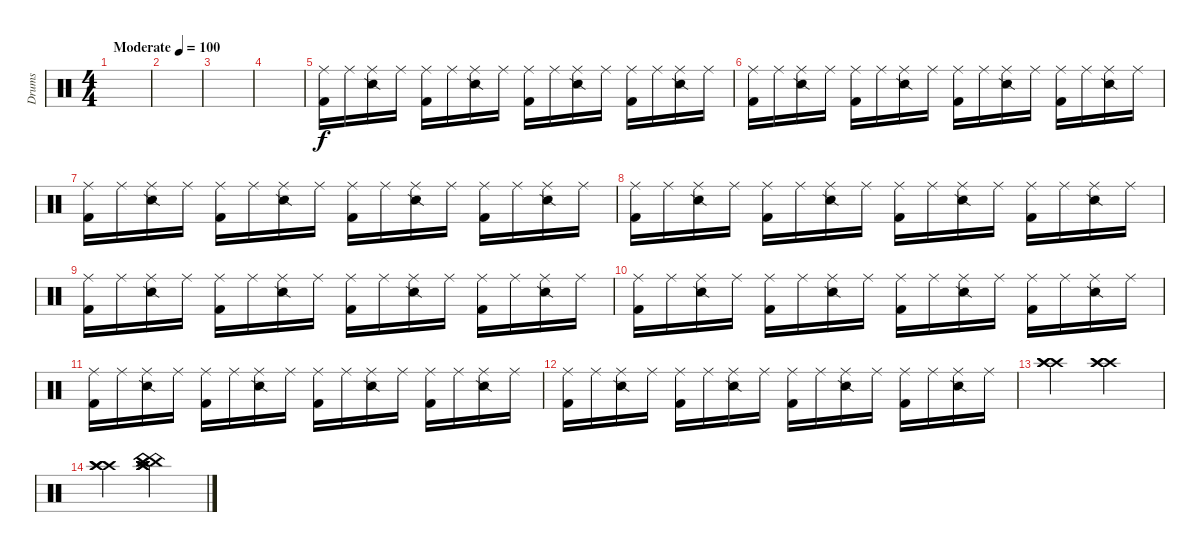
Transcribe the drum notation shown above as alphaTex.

\track ("Drums" "Drums") {instrument percussion}
\staff {score}
\articulation defaults
\ts (4 4)
\tempo (100 "Moderate")
\clef neutral
\ks c
|
|
|
|
("Kick (hit) 2" "Ride (middle)").16 "Ride (middle)".16 ("Snare (side stick) 2" "Ride (middle)").16 "Ride (middle)".16 ("Kick (hit) 2" "Ride (middle)").16 "Ride (middle)".16 ("Snare (side stick) 2" "Ride (middle)").16 "Ride (middle)".16 ("Kick (hit) 2" "Ride (middle)").16 "Ride (middle)".16 ("Snare (side stick) 2" "Ride (middle)").16 "Ride (middle)".16 ("Kick (hit) 2" "Ride (middle)").16 "Ride (middle)".16 ("Snare (side stick) 2" "Ride (middle)").16 "Ride (middle)".16 |
("Kick (hit) 2" "Ride (middle)").16 "Ride (middle)".16 ("Snare (side stick) 2" "Ride (middle)").16 "Ride (middle)".16 ("Kick (hit) 2" "Ride (middle)").16 "Ride (middle)".16 ("Snare (side stick) 2" "Ride (middle)").16 "Ride (middle)".16 ("Kick (hit) 2" "Ride (middle)").16 "Ride (middle)".16 ("Snare (side stick) 2" "Ride (middle)").16 "Ride (middle)".16 ("Kick (hit) 2" "Ride (middle)").16 "Ride (middle)".16 ("Snare (side stick) 2" "Ride (middle)").16 "Ride (middle)".16 |
("Kick (hit) 2" "Ride (middle)").16 "Ride (middle)".16 ("Snare (side stick) 2" "Ride (middle)").16 "Ride (middle)".16 ("Kick (hit) 2" "Ride (middle)").16 "Ride (middle)".16 ("Snare (side stick) 2" "Ride (middle)").16 "Ride (middle)".16 ("Kick (hit) 2" "Ride (middle)").16 "Ride (middle)".16 ("Snare (side stick) 2" "Ride (middle)").16 "Ride (middle)".16 ("Kick (hit) 2" "Ride (middle)").16 "Ride (middle)".16 ("Snare (side stick) 2" "Ride (middle)").16 "Ride (middle)".16 |
("Kick (hit) 2" "Ride (middle)").16 "Ride (middle)".16 ("Snare (side stick) 2" "Ride (middle)").16 "Ride (middle)".16 ("Kick (hit) 2" "Ride (middle)").16 "Ride (middle)".16 ("Snare (side stick) 2" "Ride (middle)").16 "Ride (middle)".16 ("Kick (hit) 2" "Ride (middle)").16 "Ride (middle)".16 ("Snare (side stick) 2" "Ride (middle)").16 "Ride (middle)".16 ("Kick (hit) 2" "Ride (middle)").16 "Ride (middle)".16 ("Snare (side stick) 2" "Ride (middle)").16 "Ride (middle)".16 |
("Kick (hit) 2" "Ride (middle)").16 "Ride (middle)".16 ("Snare (side stick) 2" "Ride (middle)").16 "Ride (middle)".16 ("Kick (hit) 2" "Ride (middle)").16 "Ride (middle)".16 ("Snare (side stick) 2" "Ride (middle)").16 "Ride (middle)".16 ("Kick (hit) 2" "Ride (middle)").16 "Ride (middle)".16 ("Snare (side stick) 2" "Ride (middle)").16 "Ride (middle)".16 ("Kick (hit) 2" "Ride (middle)").16 "Ride (middle)".16 ("Snare (side stick) 2" "Ride (middle)").16 "Ride (middle)".16 |
("Kick (hit) 2" "Ride (middle)").16 "Ride (middle)".16 ("Snare (side stick) 2" "Ride (middle)").16 "Ride (middle)".16 ("Kick (hit) 2" "Ride (middle)").16 "Ride (middle)".16 ("Snare (side stick) 2" "Ride (middle)").16 "Ride (middle)".16 ("Kick (hit) 2" "Ride (middle)").16 "Ride (middle)".16 ("Snare (side stick) 2" "Ride (middle)").16 "Ride (middle)".16 ("Kick (hit) 2" "Ride (middle)").16 "Ride (middle)".16 ("Snare (side stick) 2" "Ride (middle)").16 "Ride (middle)".16 |
("Kick (hit) 2" "Ride (middle)").16 "Ride (middle)".16 ("Snare (side stick) 2" "Ride (middle)").16 "Ride (middle)".16 ("Kick (hit) 2" "Ride (middle)").16 "Ride (middle)".16 ("Snare (side stick) 2" "Ride (middle)").16 "Ride (middle)".16 ("Kick (hit) 2" "Ride (middle)").16 "Ride (middle)".16 ("Snare (side stick) 2" "Ride (middle)").16 "Ride (middle)".16 ("Kick (hit) 2" "Ride (middle)").16 "Ride (middle)".16 ("Snare (side stick) 2" "Ride (middle)").16 "Ride (middle)".16 |
("Kick (hit) 2" "Ride (middle)").16 "Ride (middle)".16 ("Snare (side stick) 2" "Ride (middle)").16 "Ride (middle)".16 ("Kick (hit) 2" "Ride (middle)").16 "Ride (middle)".16 ("Snare (side stick) 2" "Ride (middle)").16 "Ride (middle)".16 ("Kick (hit) 2" "Ride (middle)").16 "Ride (middle)".16 ("Snare (side stick) 2" "Ride (middle)").16 "Ride (middle)".16 ("Kick (hit) 2" "Ride (middle)").16 "Ride (middle)".16 ("Snare (side stick) 2" "Ride (middle)").16 "Ride (middle)".16 |
("Crash high (hit)" "Crash high (hit)" "Crash high (hit)").2 ("Crash high (hit)" "Crash high (hit)" "Crash high (hit)").2 |
("Crash high (hit)" "Crash high (hit)" "Crash high (hit)").2 ("Crash high (hit)" "China (hit)" "Crash high (hit)" "China (hit)" "Crash high (hit)" "China (hit)").2
